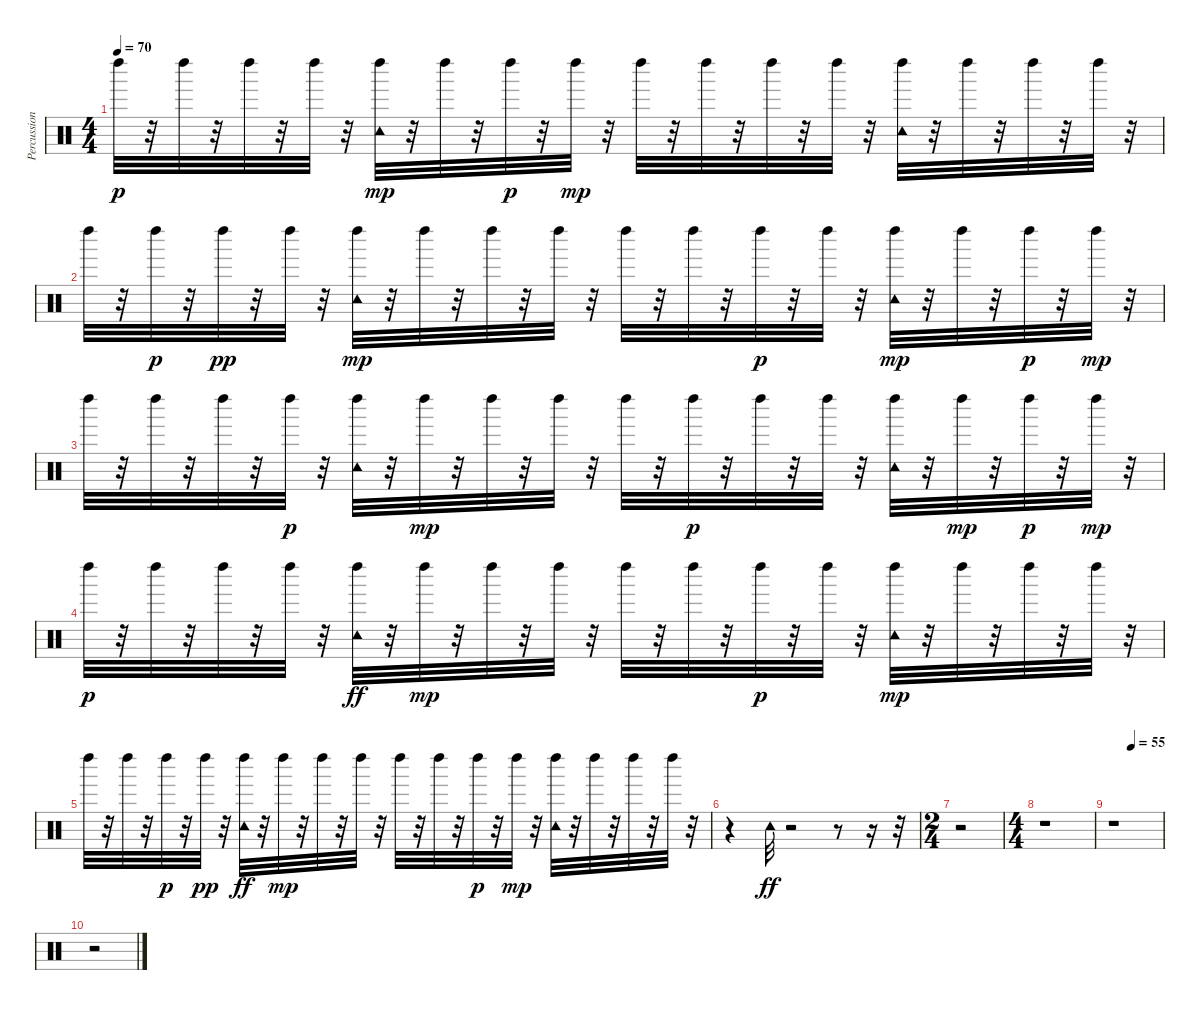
\track ("Percussion" "Percussion") {instrument percussion}
\staff {score}
\articulation defaults
\ts (4 4)
\tempo 70
\clef neutral
\ks c "Left Maraca (hit)".32{dy p}
r.32 "Left Maraca (hit)".32 r.32 "Left Maraca (hit)".32 r.32 "Left Maraca (hit)".32 r.32 ("Tambourine (hit)" "Left Maraca (hit)").32{dy mp} r.32 "Left Maraca (hit)".32 r.32 "Left Maraca (hit)".32{dy p} r.32 "Left Maraca (hit)".32{dy mp} r.32 "Left Maraca (hit)".32 r.32 "Left Maraca (hit)".32 r.32 "Left Maraca (hit)".32 r.32 "Left Maraca (hit)".32 r.32 ("Tambourine (hit)" "Left Maraca (hit)").32 r.32 "Left Maraca (hit)".32 r.32 "Left Maraca (hit)".32 r.32 "Left Maraca (hit)".32 r.32 |
"Left Maraca (hit)".32 r.32 "Left Maraca (hit)".32{dy p} r.32 "Left Maraca (hit)".32{dy pp} r.32 "Left Maraca (hit)".32 r.32 ("Tambourine (hit)" "Left Maraca (hit)").32{dy mp} r.32 "Left Maraca (hit)".32 r.32 "Left Maraca (hit)".32 r.32 "Left Maraca (hit)".32 r.32 "Left Maraca (hit)".32 r.32 "Left Maraca (hit)".32 r.32 "Left Maraca (hit)".32{dy p} r.32 "Left Maraca (hit)".32 r.32 ("Tambourine (hit)" "Left Maraca (hit)").32{dy mp} r.32 "Left Maraca (hit)".32 r.32 "Left Maraca (hit)".32{dy p} r.32 "Left Maraca (hit)".32{dy mp} r.32 |
"Left Maraca (hit)".32 r.32 "Left Maraca (hit)".32 r.32 "Left Maraca (hit)".32 r.32 "Left Maraca (hit)".32{dy p} r.32 ("Tambourine (hit)" "Left Maraca (hit)").32 r.32 "Left Maraca (hit)".32{dy mp} r.32 "Left Maraca (hit)".32 r.32 "Left Maraca (hit)".32 r.32 "Left Maraca (hit)".32 r.32 "Left Maraca (hit)".32{dy p} r.32 "Left Maraca (hit)".32 r.32 "Left Maraca (hit)".32 r.32 ("Tambourine (hit)" "Left Maraca (hit)").32 r.32 "Left Maraca (hit)".32{dy mp} r.32 "Left Maraca (hit)".32{dy p} r.32 "Left Maraca (hit)".32{dy mp} r.32 |
"Left Maraca (hit)".32{dy p} r.32 "Left Maraca (hit)".32 r.32 "Left Maraca (hit)".32 r.32 "Left Maraca (hit)".32 r.32 ("Left Maraca (hit)" "Tambourine (hit)").32{dy ff} r.32 "Left Maraca (hit)".32{dy mp} r.32 "Left Maraca (hit)".32 r.32 "Left Maraca (hit)".32 r.32 "Left Maraca (hit)".32 r.32 "Left Maraca (hit)".32 r.32 "Left Maraca (hit)".32{dy p} r.32 "Left Maraca (hit)".32 r.32 ("Tambourine (hit)" "Left Maraca (hit)").32{dy mp} r.32 "Left Maraca (hit)".32 r.32 "Left Maraca (hit)".32 r.32 "Left Maraca (hit)".32 r.32 |
"Left Maraca (hit)".32 r.32 "Left Maraca (hit)".32 r.32 "Left Maraca (hit)".32{dy p} r.32 "Left Maraca (hit)".32{dy pp} r.32 ("Left Maraca (hit)" "Tambourine (hit)").32{dy ff} r.32 "Left Maraca (hit)".32{dy mp} r.32 "Left Maraca (hit)".32 r.32 "Left Maraca (hit)".32 r.32 "Left Maraca (hit)".32 r.32 "Left Maraca (hit)".32 r.32 "Left Maraca (hit)".32{dy p} r.32 "Left Maraca (hit)".32{dy mp} r.32 ("Tambourine (hit)" "Left Maraca (hit)").32 r.32 "Left Maraca (hit)".32 r.32 "Left Maraca (hit)".32 r.32 "Left Maraca (hit)".32 r.32 |
r.4 "Tambourine (hit)".32{dy ff} r.2 r.8 r.16 r.32 |
\ts (2 4)
r.2 |
\ts (4 4)
r.1 |
\tempo (55 0.375)
r.1 |
r.2
